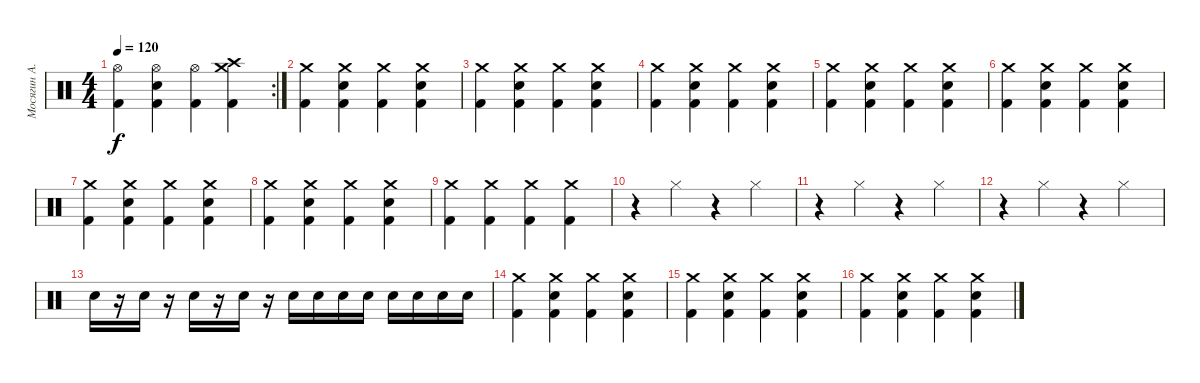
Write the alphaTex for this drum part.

\track ("Мосягин А." "Мосягин А.") {instrument percussion}
\staff {score}
\articulation defaults
\rc 2
\ts (4 4)
\tempo 120
\clef neutral
\ks c
("Hi-Hat (open)" "Kick (hit) 2").4{dy f} ("Hi-Hat (open)" "Snare (hit) 2" "Kick (hit) 2").4 ("Hi-Hat (open)" "Kick (hit) 2").4 ("Crash high (hit)" "Crash medium (hit)" "Kick (hit) 2").4 |
("Crash medium (hit)" "Kick (hit) 2").4 ("Crash medium (hit)" "Snare (hit) 2" "Kick (hit) 2").4 ("Crash medium (hit)" "Kick (hit) 2").4 ("Crash medium (hit)" "Snare (hit) 2" "Kick (hit) 2").4 |
("Crash medium (hit)" "Kick (hit) 2").4 ("Crash medium (hit)" "Snare (hit) 2" "Kick (hit) 2").4 ("Crash medium (hit)" "Kick (hit) 2").4 ("Crash medium (hit)" "Snare (hit) 2" "Kick (hit) 2").4 |
("Crash medium (hit)" "Kick (hit) 2").4 ("Crash medium (hit)" "Snare (hit) 2" "Kick (hit) 2").4 ("Crash medium (hit)" "Kick (hit) 2").4 ("Crash medium (hit)" "Snare (hit) 2" "Kick (hit) 2").4 |
("Crash medium (hit)" "Kick (hit) 2").4 ("Crash medium (hit)" "Snare (hit) 2" "Kick (hit) 2").4 ("Crash medium (hit)" "Kick (hit) 2").4 ("Crash medium (hit)" "Snare (hit) 2" "Kick (hit) 2").4 |
("Crash medium (hit)" "Kick (hit) 2").4 ("Crash medium (hit)" "Snare (hit) 2" "Kick (hit) 2").4 ("Crash medium (hit)" "Kick (hit) 2").4 ("Crash medium (hit)" "Snare (hit) 2" "Kick (hit) 2").4 |
("Crash medium (hit)" "Kick (hit) 2").4 ("Crash medium (hit)" "Snare (hit) 2" "Kick (hit) 2").4 ("Crash medium (hit)" "Kick (hit) 2").4 ("Crash medium (hit)" "Snare (hit) 2" "Kick (hit) 2").4 |
("Crash medium (hit)" "Kick (hit) 2").4 ("Crash medium (hit)" "Snare (hit) 2" "Kick (hit) 2").4 ("Crash medium (hit)" "Kick (hit) 2").4 ("Crash medium (hit)" "Snare (hit) 2" "Kick (hit) 2").4 |
("Crash medium (hit)" "Kick (hit) 2").4 ("Crash medium (hit)" "Kick (hit) 2").4 ("Crash medium (hit)" "Kick (hit) 2").4 ("Crash medium (hit)" "Kick (hit) 2").4 |
r.4 "Hi-Hat (closed)".4 r.4 "Hi-Hat (closed)".4 |
r.4 "Hi-Hat (closed)".4 r.4 "Hi-Hat (closed)".4 |
r.4 "Hi-Hat (closed)".4 r.4 "Hi-Hat (closed)".4 |
"Snare (hit) 2".16 r.16 "Snare (hit) 2".16 r.16 "Snare (hit) 2".16 r.16 "Snare (hit) 2".16 r.16 "Snare (hit) 2".16 "Snare (hit) 2".16 "Snare (hit) 2".16 "Snare (hit) 2".16 "Snare (hit) 2".16 "Snare (hit) 2".16 "Snare (hit) 2".16 "Snare (hit) 2".16 |
("Crash medium (hit)" "Kick (hit) 2").4 ("Crash medium (hit)" "Snare (hit) 2" "Kick (hit) 2").4 ("Crash medium (hit)" "Kick (hit) 2").4 ("Crash medium (hit)" "Snare (hit) 2" "Kick (hit) 2").4 |
("Crash medium (hit)" "Kick (hit) 2").4 ("Crash medium (hit)" "Snare (hit) 2" "Kick (hit) 2").4 ("Crash medium (hit)" "Kick (hit) 2").4 ("Crash medium (hit)" "Snare (hit) 2" "Kick (hit) 2").4 |
("Crash medium (hit)" "Kick (hit) 2").4 ("Crash medium (hit)" "Snare (hit) 2" "Kick (hit) 2").4 ("Crash medium (hit)" "Kick (hit) 2").4 ("Crash medium (hit)" "Snare (hit) 2" "Kick (hit) 2").4
